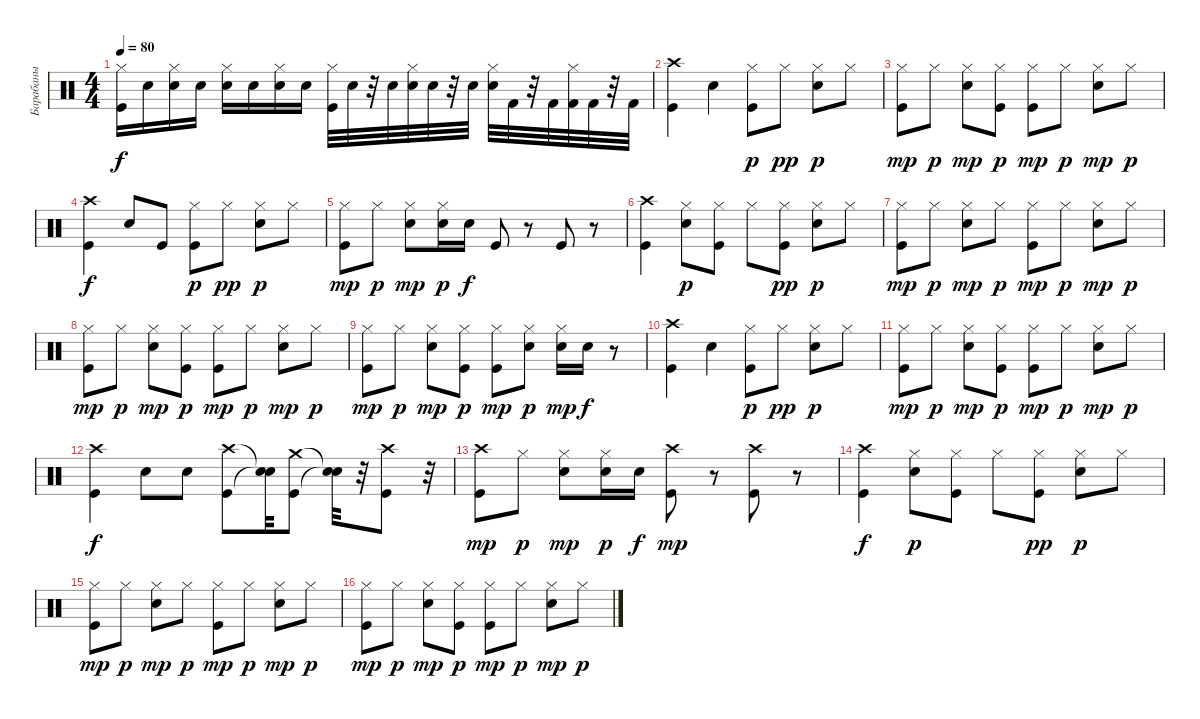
\track ("Барабаны" "Барабаны") {instrument percussion}
\staff {score}
\articulation defaults
\ts (4 4)
\tempo 80
\clef neutral
\ks c
("Hi-Hat (closed)" "Kick (hit)").16{dy f} "Snare (hit) 2".16 ("Hi-Hat (closed)" "Snare (hit) 2").16 "Snare (hit) 2".16 ("Hi-Hat (closed)" "Snare (hit) 2").16 "Snare (hit) 2".16 ("Hi-Hat (closed)" "Snare (hit) 2").16 "Snare (hit) 2".16 ("Hi-Hat (closed)" "Kick (hit)").32 "Snare (hit) 2".32 r.32 "Snare (hit) 2".32 ("Hi-Hat (closed)" "Snare (hit) 2").32 "Snare (hit) 2".32 r.32 "Snare (hit) 2".32 ("Hi-Hat (closed)" "Snare (hit) 2").32 "Kick (hit) 2".32 r.32 "Kick (hit) 2".32 ("Hi-Hat (closed)" "Kick (hit) 2").32 "Kick (hit) 2".32 r.32 "Kick (hit) 2".32 |
("Crash high (hit)" "Kick (hit)").4 "Snare (hit) 2".4 ("Kick (hit)" "Hi-Hat (closed)").8{dy p} "Hi-Hat (closed)".8{dy pp} ("Hi-Hat (closed)" "Snare (hit) 2").8{dy p} "Hi-Hat (closed)".8 |
("Kick (hit)" "Hi-Hat (closed)").8{dy mp} "Hi-Hat (closed)".8{dy p} ("Hi-Hat (closed)" "Snare (hit) 2").8{dy mp} ("Kick (hit)" "Hi-Hat (closed)").8{dy p} ("Hi-Hat (closed)" "Kick (hit)").8{dy mp} "Hi-Hat (closed)".8{dy p} ("Snare (hit) 2" "Hi-Hat (closed)").8{dy mp} "Hi-Hat (closed)".8{dy p} |
("Kick (hit)" "Crash high (hit)").4{dy f} "Snare (hit) 2".8 "Kick (hit)".8 ("Kick (hit)" "Hi-Hat (closed)").8{dy p} "Hi-Hat (closed)".8{dy pp} ("Hi-Hat (closed)" "Snare (hit) 2").8{dy p} "Hi-Hat (closed)".8 |
("Kick (hit)" "Hi-Hat (closed)").8{dy mp} "Hi-Hat (closed)".8{dy p} ("Snare (hit) 2" "Hi-Hat (closed)").8{dy mp} ("Snare (hit) 2" "Hi-Hat (closed)").16{dy p} "Snare (hit) 2".16{dy f} "Kick (hit)".8 r.8 "Kick (hit)".8 r.8 |
("Kick (hit)" "Crash high (hit)").4 ("Snare (hit) 2" "Hi-Hat (closed)").8{dy p} ("Kick (hit)" "Hi-Hat (closed)").8 "Hi-Hat (closed)".8 ("Kick (hit)" "Hi-Hat (closed)").8{dy pp} ("Snare (hit) 2" "Hi-Hat (closed)").8{dy p} "Hi-Hat (closed)".8 |
("Kick (hit)" "Hi-Hat (closed)").8{dy mp} "Hi-Hat (closed)".8{dy p} ("Snare (hit) 2" "Hi-Hat (closed)").8{dy mp} "Hi-Hat (closed)".8{dy p} ("Kick (hit)" "Hi-Hat (closed)").8{dy mp} "Hi-Hat (closed)".8{dy p} ("Snare (hit) 2" "Hi-Hat (closed)").8{dy mp} "Hi-Hat (closed)".8{dy p} |
("Kick (hit)" "Hi-Hat (closed)").8{dy mp} "Hi-Hat (closed)".8{dy p} ("Snare (hit) 2" "Hi-Hat (closed)").8{dy mp} ("Kick (hit)" "Hi-Hat (closed)").8{dy p} ("Kick (hit)" "Hi-Hat (closed)").8{dy mp} "Hi-Hat (closed)".8{dy p} ("Snare (hit) 2" "Hi-Hat (closed)").8{dy mp} "Hi-Hat (closed)".8{dy p} |
("Kick (hit)" "Hi-Hat (closed)").8{dy mp} "Hi-Hat (closed)".8{dy p} ("Snare (hit) 2" "Hi-Hat (closed)").8{dy mp} ("Kick (hit)" "Hi-Hat (closed)").8{dy p} ("Kick (hit)" "Hi-Hat (closed)").8{dy mp} ("Snare (hit) 2" "Hi-Hat (closed)").8{dy p} ("Snare (hit) 2" "Hi-Hat (closed)").16{dy mp} "Snare (hit) 2".16{dy f} r.8 |
("Crash high (hit)" "Kick (hit)").4 "Snare (hit) 2".4 ("Kick (hit)" "Hi-Hat (closed)").8{dy p} "Hi-Hat (closed)".8{dy pp} ("Hi-Hat (closed)" "Snare (hit) 2").8{dy p} "Hi-Hat (closed)".8 |
("Kick (hit)" "Hi-Hat (closed)").8{dy mp} "Hi-Hat (closed)".8{dy p} ("Hi-Hat (closed)" "Snare (hit) 2").8{dy mp} ("Kick (hit)" "Hi-Hat (closed)").8{dy p} ("Hi-Hat (closed)" "Kick (hit)").8{dy mp} "Hi-Hat (closed)".8{dy p} ("Snare (hit) 2" "Hi-Hat (closed)").8{dy mp} "Hi-Hat (closed)".8{dy p} |
("Kick (hit)" "Crash high (hit)").4{dy f} "Snare (hit) 2".8 "Snare (hit) 2".8 ("Crash high (hit)" "Kick (hit)").8 ("Snare (hit)"{t} "Snare (hit)"{t}).32 ("Crash medium (hit)" "Kick (hit)").8 ("Snare (hit)"{t} "Snare (hit)"{t}).32 r.32 ("Crash high (hit)" "Kick (hit)").8 r.32 |
("Kick (hit)" "Crash high (hit)").8{dy mp} "Hi-Hat (closed)".8{dy p} ("Snare (hit) 2" "Hi-Hat (closed)").8{dy mp} ("Snare (hit) 2" "Hi-Hat (closed)").16{dy p} "Snare (hit) 2".16{dy f} ("Crash high (hit)" "Kick (hit)").8{dy mp} r.8 ("Crash high (hit)" "Kick (hit)").8 r.8 |
("Kick (hit)" "Crash high (hit)").4{dy f} ("Snare (hit) 2" "Hi-Hat (closed)").8{dy p} ("Kick (hit)" "Hi-Hat (closed)").8 "Hi-Hat (closed)".8 ("Kick (hit)" "Hi-Hat (closed)").8{dy pp} ("Snare (hit) 2" "Hi-Hat (closed)").8{dy p} "Hi-Hat (closed)".8 |
("Kick (hit)" "Hi-Hat (closed)").8{dy mp} "Hi-Hat (closed)".8{dy p} ("Snare (hit) 2" "Hi-Hat (closed)").8{dy mp} "Hi-Hat (closed)".8{dy p} ("Kick (hit)" "Hi-Hat (closed)").8{dy mp} "Hi-Hat (closed)".8{dy p} ("Snare (hit) 2" "Hi-Hat (closed)").8{dy mp} "Hi-Hat (closed)".8{dy p} |
("Kick (hit)" "Hi-Hat (closed)").8{dy mp} "Hi-Hat (closed)".8{dy p} ("Snare (hit) 2" "Hi-Hat (closed)").8{dy mp} ("Kick (hit)" "Hi-Hat (closed)").8{dy p} ("Kick (hit)" "Hi-Hat (closed)").8{dy mp} "Hi-Hat (closed)".8{dy p} ("Snare (hit) 2" "Hi-Hat (closed)").8{dy mp} "Hi-Hat (closed)".8{dy p}
